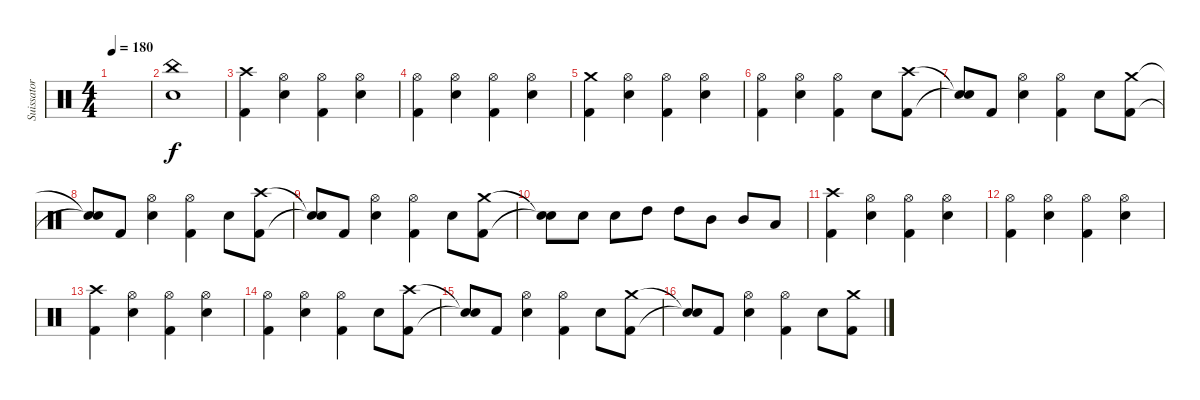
\track ("Suissator" "Suissator") {instrument percussion}
\staff {score}
\articulation defaults
\ts (4 4)
\tempo 180
\clef neutral
\ks c
|
("Electric Snare (hit)" "China (hit)").1 |
("Kick (hit) 2" "Crash high (hit)").4 ("Electric Snare (hit)" "Hi-Hat (open)").4 ("Kick (hit) 2" "Hi-Hat (open)").4 ("Electric Snare (hit)" "Hi-Hat (open)").4 |
("Kick (hit) 2" "Hi-Hat (open)").4 ("Electric Snare (hit)" "Hi-Hat (open)").4 ("Kick (hit) 2" "Hi-Hat (open)").4 ("Electric Snare (hit)" "Hi-Hat (open)").4 |
("Kick (hit) 2" "Crash medium (hit)").4 ("Electric Snare (hit)" "Hi-Hat (open)").4 ("Kick (hit) 2" "Hi-Hat (open)").4 ("Electric Snare (hit)" "Hi-Hat (open)").4 |
("Kick (hit) 2" "Hi-Hat (open)").4 ("Electric Snare (hit)" "Hi-Hat (open)").4 ("Kick (hit) 2" "Hi-Hat (open)").4 "Electric Snare (hit)".8 ("Kick (hit) 2" "Crash high (hit)").8 |
("Snare (hit)"{t} "Snare (hit)"{t}).8 "Kick (hit) 2".8 ("Electric Snare (hit)" "Hi-Hat (open)").4 ("Kick (hit) 2" "Hi-Hat (open)").4 "Electric Snare (hit)".8 ("Kick (hit) 2" "Crash medium (hit)").8 |
("Snare (hit)"{t} "Snare (hit)"{t}).8 "Kick (hit) 2".8 ("Electric Snare (hit)" "Hi-Hat (open)").4 ("Kick (hit) 2" "Hi-Hat (open)").4 "Electric Snare (hit)".8 ("Kick (hit) 2" "Crash high (hit)").8 |
("Snare (hit)"{t} "Snare (hit)"{t}).8 "Kick (hit) 2".8 ("Electric Snare (hit)" "Hi-Hat (open)").4 ("Kick (hit) 2" "Hi-Hat (open)").4 "Electric Snare (hit)".8 ("Kick (hit) 2" "Crash medium (hit)").8 |
("Snare (hit)"{t} "Snare (hit)"{t}).8 "Electric Snare (hit)".8 "Electric Snare (hit)".8 "High Tom (hit)".8 "High Tom (hit)".8 "Mid Tom (hit)".8 "Mid Tom (hit)".8 "Low Tom (hit)".8 |
("Kick (hit) 2" "Crash high (hit)").4 ("Electric Snare (hit)" "Hi-Hat (open)").4 ("Kick (hit) 2" "Hi-Hat (open)").4 ("Electric Snare (hit)" "Hi-Hat (open)").4 |
("Kick (hit) 2" "Hi-Hat (open)").4 ("Electric Snare (hit)" "Hi-Hat (open)").4 ("Kick (hit) 2" "Hi-Hat (open)").4 ("Electric Snare (hit)" "Hi-Hat (open)").4 |
("Kick (hit) 2" "Crash high (hit)").4 ("Electric Snare (hit)" "Hi-Hat (open)").4 ("Kick (hit) 2" "Hi-Hat (open)").4 ("Electric Snare (hit)" "Hi-Hat (open)").4 |
("Kick (hit) 2" "Hi-Hat (open)").4 ("Electric Snare (hit)" "Hi-Hat (open)").4 ("Kick (hit) 2" "Hi-Hat (open)").4 "Electric Snare (hit)".8 ("Kick (hit) 2" "Crash high (hit)").8 |
("Snare (hit)"{t} "Snare (hit)"{t}).8 "Kick (hit) 2".8 ("Electric Snare (hit)" "Hi-Hat (open)").4 ("Kick (hit) 2" "Hi-Hat (open)").4 "Electric Snare (hit)".8 ("Kick (hit) 2" "Crash medium (hit)").8 |
("Snare (hit)"{t} "Snare (hit)"{t}).8 "Kick (hit) 2".8 ("Electric Snare (hit)" "Hi-Hat (open)").4 ("Kick (hit) 2" "Hi-Hat (open)").4 "Electric Snare (hit)".8 ("Kick (hit) 2" "Crash medium (hit)").8
